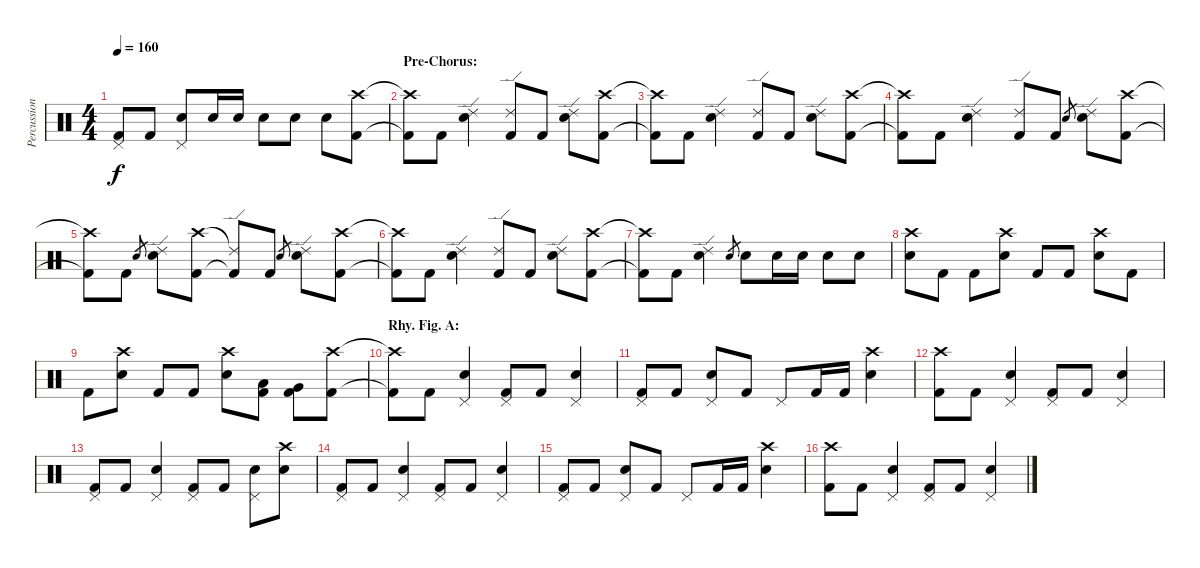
\track ("Percussion" "Percussion") {instrument percussion}
\staff {score}
\articulation defaults
\ts (4 4)
\tempo 160
\clef neutral
\ks c
("Pedal Hi-Hat (hit)" "Kick (hit) 2").8{dy f} "Kick (hit) 2".8 ("Pedal Hi-Hat (hit)" "Snare (hit) 2").8 "Snare (hit) 2".16 "Snare (hit) 2".16 "Snare (hit) 2".8 "Snare (hit) 2".8 "Snare (hit) 2".8 ("Crash high (hit)" "Kick (hit) 2").8 |
\section ("" "Pre-Chorus:")
("Crash high (hit)"{t} "Kick (hit) 2"{t}).8 "Kick (hit) 2".8 ("Ride (edge) 2" "Snare (hit) 2").4 ("Ride (edge) 2" "Kick (hit) 2").8 "Kick (hit) 2".8 ("Ride (edge) 2" "Snare (hit) 2").8 ("Crash high (hit)" "Kick (hit) 2").8 |
("Crash high (hit)"{t} "Kick (hit) 2"{t}).8 "Kick (hit) 2".8 ("Ride (edge) 2" "Snare (hit) 2").4 ("Ride (edge) 2" "Kick (hit) 2").8 "Kick (hit) 2".8 ("Ride (edge) 2" "Snare (hit) 2").8 ("Crash high (hit)" "Kick (hit) 2").8 |
("Crash high (hit)"{t} "Kick (hit) 2"{t}).8 "Kick (hit) 2".8 ("Ride (edge) 2" "Snare (hit) 2").4 ("Ride (edge) 2" "Kick (hit) 2").8 "Kick (hit) 2".8 "Snare (hit) 2".8{gr} ("Ride (edge) 2" "Snare (hit) 2").8 ("Crash high (hit)" "Kick (hit) 2").8 |
("Crash high (hit)"{t} "Kick (hit) 2"{t}).8 "Kick (hit) 2".8 "Snare (hit) 2".8{gr} ("Ride (edge) 2" "Snare (hit) 2").8 ("Crash high (hit)" "Kick (hit) 2").8 ("Ride (edge) 2"{t} "Kick (hit) 2"{t}).8 "Kick (hit) 2".8 "Snare (hit) 2".8{gr} ("Ride (edge) 2" "Snare (hit) 2").8 ("Crash high (hit)" "Kick (hit) 2").8 |
("Crash high (hit)"{t} "Kick (hit) 2"{t}).8 "Kick (hit) 2".8 ("Ride (edge) 2" "Snare (hit) 2").4 ("Ride (edge) 2" "Kick (hit) 2").8 "Kick (hit) 2".8 ("Ride (edge) 2" "Snare (hit) 2").8 ("Crash high (hit)" "Kick (hit) 2").8 |
("Crash high (hit)"{t} "Kick (hit) 2"{t}).8 "Kick (hit) 2".8 ("Ride (edge) 2" "Snare (hit) 2").4 "Snare (hit) 2".8{gr} "Snare (hit) 2".8 "Snare (hit) 2".16 "Snare (hit) 2".16 "Snare (hit) 2".8 "Snare (hit) 2".8 |
("Crash high (hit)" "Snare (hit) 2").8 "Kick (hit) 2".8 "Kick (hit) 2".8 ("Crash high (hit)" "Snare (hit) 2").8 "Kick (hit) 2".8 "Kick (hit) 2".8 ("Crash high (hit)" "Snare (hit) 2").8 "Kick (hit) 2".8 |
"Kick (hit) 2".8 ("Crash high (hit)" "Snare (hit) 2").8 "Kick (hit) 2".8 "Kick (hit) 2".8 ("Crash high (hit)" "Snare (hit) 2").8 ("Low Tom (hit)" "Kick (hit) 2").8 ("Very Low Tom (hit)" "Kick (hit) 2").8 ("Crash high (hit)" "Kick (hit) 2").8 |
\section ("" "Rhy. Fig. A:")
("Crash high (hit)"{t} "Kick (hit) 2"{t}).8 "Kick (hit) 2".8 ("Pedal Hi-Hat (hit)" "Snare (hit) 2").4 ("Pedal Hi-Hat (hit)" "Kick (hit) 2").8 "Kick (hit) 2".8 ("Pedal Hi-Hat (hit)" "Snare (hit) 2").4 |
("Pedal Hi-Hat (hit)" "Kick (hit) 2").8 "Kick (hit) 2".8 ("Pedal Hi-Hat (hit)" "Snare (hit) 2").8 "Kick (hit) 2".8 "Pedal Hi-Hat (hit)".8 "Kick (hit) 2".16 "Kick (hit) 2".16 ("Crash high (hit)" "Snare (hit) 2").4 |
("Crash high (hit)" "Kick (hit) 2").8 "Kick (hit) 2".8 ("Pedal Hi-Hat (hit)" "Snare (hit) 2").4 ("Pedal Hi-Hat (hit)" "Kick (hit) 2").8 "Kick (hit) 2".8 ("Pedal Hi-Hat (hit)" "Snare (hit) 2").4 |
("Pedal Hi-Hat (hit)" "Kick (hit) 2").8 "Kick (hit) 2".8 ("Pedal Hi-Hat (hit)" "Snare (hit) 2").4 ("Pedal Hi-Hat (hit)" "Kick (hit) 2").8 "Kick (hit) 2".8 ("Pedal Hi-Hat (hit)" "Snare (hit) 2").8 ("Crash high (hit)" "Snare (hit) 2").8 |
("Pedal Hi-Hat (hit)" "Kick (hit) 2").8 "Kick (hit) 2".8 ("Pedal Hi-Hat (hit)" "Snare (hit) 2").4 ("Pedal Hi-Hat (hit)" "Kick (hit) 2").8 "Kick (hit) 2".8 ("Pedal Hi-Hat (hit)" "Snare (hit) 2").4 |
("Pedal Hi-Hat (hit)" "Kick (hit) 2").8 "Kick (hit) 2".8 ("Pedal Hi-Hat (hit)" "Snare (hit) 2").8 "Kick (hit) 2".8 "Pedal Hi-Hat (hit)".8 "Kick (hit) 2".16 "Kick (hit) 2".16 ("Crash high (hit)" "Snare (hit) 2").4 |
("Crash high (hit)" "Kick (hit) 2").8 "Kick (hit) 2".8 ("Pedal Hi-Hat (hit)" "Snare (hit) 2").4 ("Pedal Hi-Hat (hit)" "Kick (hit) 2").8 "Kick (hit) 2".8 ("Pedal Hi-Hat (hit)" "Snare (hit) 2").4
